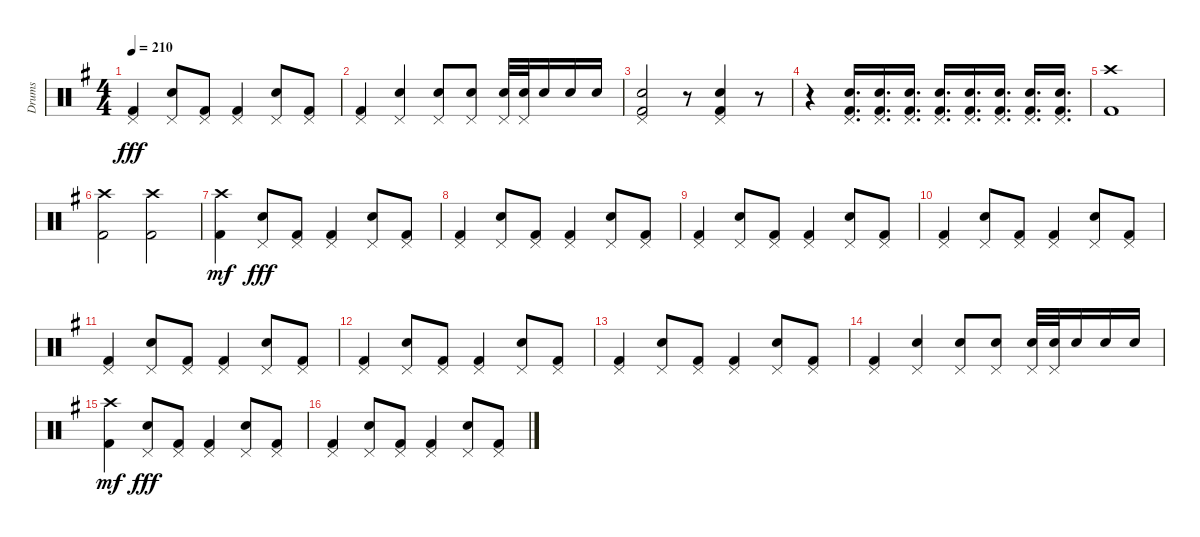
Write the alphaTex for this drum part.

\track ("Drums" "Drums") {instrument percussion}
\staff {score}
\articulation defaults
\ts (4 4)
\tempo 210
\clef neutral
\ks g
("Kick (hit) 2" "Pedal Hi-Hat (hit)").4{dy fff} ("Electric Snare (hit)" "Pedal Hi-Hat (hit)").8 ("Kick (hit) 2" "Pedal Hi-Hat (hit)").8 ("Kick (hit) 2" "Pedal Hi-Hat (hit)").4 ("Electric Snare (hit)" "Pedal Hi-Hat (hit)").8 ("Kick (hit) 2" "Pedal Hi-Hat (hit)").8 |
("Kick (hit) 2" "Pedal Hi-Hat (hit)").4 ("Electric Snare (hit)" "Pedal Hi-Hat (hit)").4 ("Electric Snare (hit)" "Pedal Hi-Hat (hit)").8 ("Electric Snare (hit)" "Pedal Hi-Hat (hit)").8 ("Electric Snare (hit)" "Pedal Hi-Hat (hit)").32 ("Electric Snare (hit)" "Pedal Hi-Hat (hit)").32 "Electric Snare (hit)".16 "Electric Snare (hit)".16 "Electric Snare (hit)".16 |
("Electric Snare (hit)" "Kick (hit) 2" "Pedal Hi-Hat (hit)").2 r.8 ("Electric Snare (hit)" "Kick (hit) 2" "Pedal Hi-Hat (hit)").4 r.8 |
r.4 ("Electric Snare (hit)" "Pedal Hi-Hat (hit)" "Kick (hit) 2").16{d} ("Electric Snare (hit)" "Pedal Hi-Hat (hit)" "Kick (hit) 2").16{d} ("Electric Snare (hit)" "Pedal Hi-Hat (hit)" "Kick (hit) 2").16{d} ("Electric Snare (hit)" "Pedal Hi-Hat (hit)" "Kick (hit) 2").16{d} ("Electric Snare (hit)" "Pedal Hi-Hat (hit)" "Kick (hit) 2").16{d} ("Electric Snare (hit)" "Pedal Hi-Hat (hit)" "Kick (hit) 2").16{d} ("Electric Snare (hit)" "Pedal Hi-Hat (hit)" "Kick (hit) 2").16{d} ("Electric Snare (hit)" "Pedal Hi-Hat (hit)" "Kick (hit) 2").16{d} |
("Kick (hit) 2" "Crash high (hit)").1 |
("Crash high (hit)" "Kick (hit) 2").2 ("Crash high (hit)" "Kick (hit) 2").2 |
("Kick (hit) 2" "Crash high (hit)").4{dy mf} ("Electric Snare (hit)" "Pedal Hi-Hat (hit)").8{dy fff} ("Kick (hit) 2" "Pedal Hi-Hat (hit)").8 ("Kick (hit) 2" "Pedal Hi-Hat (hit)").4 ("Electric Snare (hit)" "Pedal Hi-Hat (hit)").8 ("Kick (hit) 2" "Pedal Hi-Hat (hit)").8 |
("Kick (hit) 2" "Pedal Hi-Hat (hit)").4 ("Electric Snare (hit)" "Pedal Hi-Hat (hit)").8 ("Kick (hit) 2" "Pedal Hi-Hat (hit)").8 ("Kick (hit) 2" "Pedal Hi-Hat (hit)").4 ("Electric Snare (hit)" "Pedal Hi-Hat (hit)").8 ("Kick (hit) 2" "Pedal Hi-Hat (hit)").8 |
("Kick (hit) 2" "Pedal Hi-Hat (hit)").4 ("Electric Snare (hit)" "Pedal Hi-Hat (hit)").8 ("Kick (hit) 2" "Pedal Hi-Hat (hit)").8 ("Kick (hit) 2" "Pedal Hi-Hat (hit)").4 ("Electric Snare (hit)" "Pedal Hi-Hat (hit)").8 ("Kick (hit) 2" "Pedal Hi-Hat (hit)").8 |
("Kick (hit) 2" "Pedal Hi-Hat (hit)").4 ("Electric Snare (hit)" "Pedal Hi-Hat (hit)").8 ("Kick (hit) 2" "Pedal Hi-Hat (hit)").8 ("Kick (hit) 2" "Pedal Hi-Hat (hit)").4 ("Electric Snare (hit)" "Pedal Hi-Hat (hit)").8 ("Kick (hit) 2" "Pedal Hi-Hat (hit)").8 |
("Kick (hit) 2" "Pedal Hi-Hat (hit)").4 ("Electric Snare (hit)" "Pedal Hi-Hat (hit)").8 ("Kick (hit) 2" "Pedal Hi-Hat (hit)").8 ("Kick (hit) 2" "Pedal Hi-Hat (hit)").4 ("Electric Snare (hit)" "Pedal Hi-Hat (hit)").8 ("Kick (hit) 2" "Pedal Hi-Hat (hit)").8 |
("Kick (hit) 2" "Pedal Hi-Hat (hit)").4 ("Electric Snare (hit)" "Pedal Hi-Hat (hit)").8 ("Kick (hit) 2" "Pedal Hi-Hat (hit)").8 ("Kick (hit) 2" "Pedal Hi-Hat (hit)").4 ("Electric Snare (hit)" "Pedal Hi-Hat (hit)").8 ("Kick (hit) 2" "Pedal Hi-Hat (hit)").8 |
("Kick (hit) 2" "Pedal Hi-Hat (hit)").4 ("Electric Snare (hit)" "Pedal Hi-Hat (hit)").8 ("Kick (hit) 2" "Pedal Hi-Hat (hit)").8 ("Kick (hit) 2" "Pedal Hi-Hat (hit)").4 ("Electric Snare (hit)" "Pedal Hi-Hat (hit)").8 ("Kick (hit) 2" "Pedal Hi-Hat (hit)").8 |
("Kick (hit) 2" "Pedal Hi-Hat (hit)").4 ("Electric Snare (hit)" "Pedal Hi-Hat (hit)").4 ("Electric Snare (hit)" "Pedal Hi-Hat (hit)").8 ("Electric Snare (hit)" "Pedal Hi-Hat (hit)").8 ("Electric Snare (hit)" "Pedal Hi-Hat (hit)").32 ("Electric Snare (hit)" "Pedal Hi-Hat (hit)").32 "Electric Snare (hit)".16 "Electric Snare (hit)".16 "Electric Snare (hit)".16 |
("Kick (hit) 2" "Crash high (hit)").4{dy mf} ("Electric Snare (hit)" "Pedal Hi-Hat (hit)").8{dy fff} ("Kick (hit) 2" "Pedal Hi-Hat (hit)").8 ("Kick (hit) 2" "Pedal Hi-Hat (hit)").4 ("Electric Snare (hit)" "Pedal Hi-Hat (hit)").8 ("Kick (hit) 2" "Pedal Hi-Hat (hit)").8 |
("Kick (hit) 2" "Pedal Hi-Hat (hit)").4 ("Electric Snare (hit)" "Pedal Hi-Hat (hit)").8 ("Kick (hit) 2" "Pedal Hi-Hat (hit)").8 ("Kick (hit) 2" "Pedal Hi-Hat (hit)").4 ("Electric Snare (hit)" "Pedal Hi-Hat (hit)").8 ("Kick (hit) 2" "Pedal Hi-Hat (hit)").8
